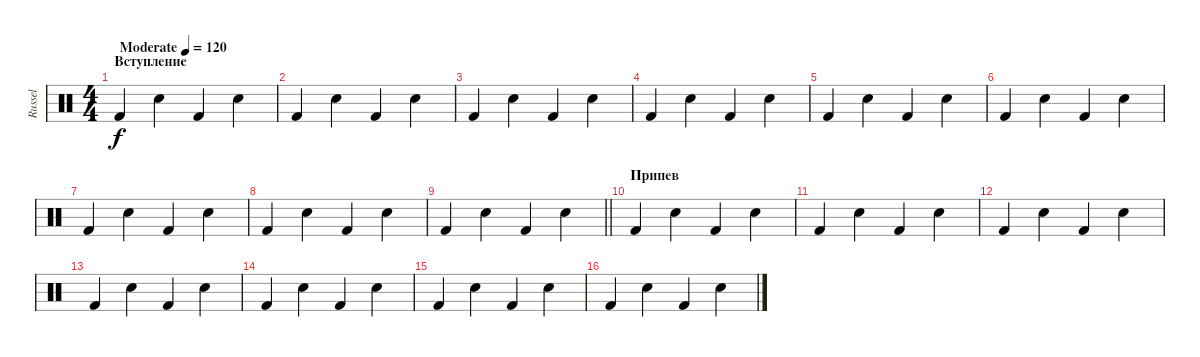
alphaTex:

\track ("Russel" "Russel") {instrument percussion}
\staff {score}
\articulation defaults
\ts (4 4)
\section ("" "Вступление")
\tempo (120 "Moderate")
\clef neutral
\ks c "Kick (hit) 2".4{dy f} "Hand Clap (hit)".4 "Kick (hit) 2".4 "Hand Clap (hit)".4
|
"Kick (hit) 2".4 "Hand Clap (hit)".4 "Kick (hit) 2".4 "Hand Clap (hit)".4 |
"Kick (hit) 2".4 "Hand Clap (hit)".4 "Kick (hit) 2".4 "Hand Clap (hit)".4 |
"Kick (hit) 2".4 "Hand Clap (hit)".4 "Kick (hit) 2".4 "Hand Clap (hit)".4 |
"Kick (hit) 2".4 "Hand Clap (hit)".4 "Kick (hit) 2".4 "Hand Clap (hit)".4 |
"Kick (hit) 2".4 "Hand Clap (hit)".4 "Kick (hit) 2".4 "Hand Clap (hit)".4 |
"Kick (hit) 2".4 "Hand Clap (hit)".4 "Kick (hit) 2".4 "Hand Clap (hit)".4 |
"Kick (hit) 2".4 "Hand Clap (hit)".4 "Kick (hit) 2".4 "Hand Clap (hit)".4 |
\barLineRight lightlight "Kick (hit) 2".4 "Hand Clap (hit)".4 "Kick (hit) 2".4 "Hand Clap (hit)".4
|
\section ("" "Припев")
"Kick (hit) 2".4 "Hand Clap (hit)".4 "Kick (hit) 2".4 "Hand Clap (hit)".4 |
"Kick (hit) 2".4 "Hand Clap (hit)".4 "Kick (hit) 2".4 "Hand Clap (hit)".4 |
"Kick (hit) 2".4 "Hand Clap (hit)".4 "Kick (hit) 2".4 "Hand Clap (hit)".4 |
"Kick (hit) 2".4 "Hand Clap (hit)".4 "Kick (hit) 2".4 "Hand Clap (hit)".4 |
"Kick (hit) 2".4 "Hand Clap (hit)".4 "Kick (hit) 2".4 "Hand Clap (hit)".4 |
"Kick (hit) 2".4 "Hand Clap (hit)".4 "Kick (hit) 2".4 "Hand Clap (hit)".4 |
"Kick (hit) 2".4 "Hand Clap (hit)".4 "Kick (hit) 2".4 "Hand Clap (hit)".4
